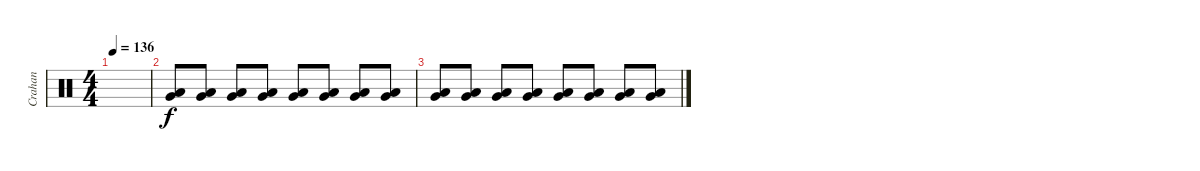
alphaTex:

\track ("Crahan" "Crahan") {instrument percussion}
\staff {score}
\articulation defaults
\ts (4 4)
\tempo 136
\clef neutral
\ks c
|
("Very Low Tom (hit)" "Low Floor Tom (hit)").8 ("Very Low Tom (hit)" "Low Floor Tom (hit)").8 ("Very Low Tom (hit)" "Low Floor Tom (hit)").8 ("Very Low Tom (hit)" "Low Floor Tom (hit)").8 ("Very Low Tom (hit)" "Low Floor Tom (hit)").8 ("Very Low Tom (hit)" "Low Floor Tom (hit)").8 ("Very Low Tom (hit)" "Low Floor Tom (hit)").8 ("Very Low Tom (hit)" "Low Floor Tom (hit)").8 |
("Very Low Tom (hit)" "Low Floor Tom (hit)").8 ("Very Low Tom (hit)" "Low Floor Tom (hit)").8 ("Very Low Tom (hit)" "Low Floor Tom (hit)").8 ("Very Low Tom (hit)" "Low Floor Tom (hit)").8 ("Very Low Tom (hit)" "Low Floor Tom (hit)").8 ("Very Low Tom (hit)" "Low Floor Tom (hit)").8 ("Very Low Tom (hit)" "Low Floor Tom (hit)").8 ("Very Low Tom (hit)" "Low Floor Tom (hit)").8
